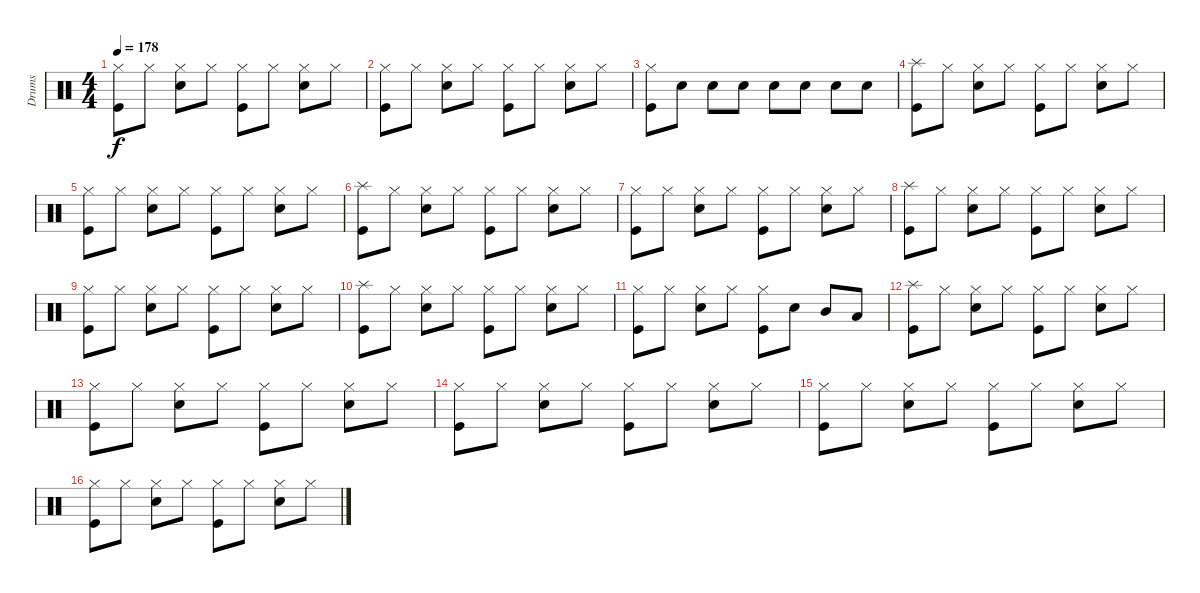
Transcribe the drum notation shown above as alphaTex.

\track ("Drums" "Drums") {instrument percussion}
\staff {score}
\articulation defaults
\ts (4 4)
\tempo 178
\clef neutral
\ks c
("Hi-Hat (closed)" "Kick (hit)").8{dy f} "Hi-Hat (closed)".8 ("Hi-Hat (closed)" "Electric Snare (hit)").8 "Hi-Hat (closed)".8 ("Hi-Hat (closed)" "Kick (hit)").8 "Hi-Hat (closed)".8 ("Hi-Hat (closed)" "Electric Snare (hit)").8 "Hi-Hat (closed)".8 |
("Hi-Hat (closed)" "Kick (hit)").8 "Hi-Hat (closed)".8 ("Hi-Hat (closed)" "Electric Snare (hit)").8 "Hi-Hat (closed)".8 ("Hi-Hat (closed)" "Kick (hit)").8 "Hi-Hat (closed)".8 ("Hi-Hat (closed)" "Electric Snare (hit)").8 "Hi-Hat (closed)".8 |
("Hi-Hat (closed)" "Kick (hit)").8 "Electric Snare (hit)".8 "Electric Snare (hit)".8 "Electric Snare (hit)".8 "Electric Snare (hit)".8 "Electric Snare (hit)".8 "Electric Snare (hit)".8 "Electric Snare (hit)".8 |
("Splash (hit)" "Kick (hit)").8 "Hi-Hat (closed)".8 ("Hi-Hat (closed)" "Electric Snare (hit)").8 "Hi-Hat (closed)".8 ("Hi-Hat (closed)" "Kick (hit)").8 "Hi-Hat (closed)".8 ("Hi-Hat (closed)" "Electric Snare (hit)").8 "Hi-Hat (closed)".8 |
("Hi-Hat (closed)" "Kick (hit)").8 "Hi-Hat (closed)".8 ("Hi-Hat (closed)" "Electric Snare (hit)").8 "Hi-Hat (closed)".8 ("Hi-Hat (closed)" "Kick (hit)").8 "Hi-Hat (closed)".8 ("Hi-Hat (closed)" "Electric Snare (hit)").8 "Hi-Hat (closed)".8 |
("Splash (hit)" "Kick (hit)").8 "Hi-Hat (closed)".8 ("Hi-Hat (closed)" "Electric Snare (hit)").8 "Hi-Hat (closed)".8 ("Hi-Hat (closed)" "Kick (hit)").8 "Hi-Hat (closed)".8 ("Hi-Hat (closed)" "Electric Snare (hit)").8 "Hi-Hat (closed)".8 |
("Hi-Hat (closed)" "Kick (hit)").8 "Hi-Hat (closed)".8 ("Hi-Hat (closed)" "Electric Snare (hit)").8 "Hi-Hat (closed)".8 ("Hi-Hat (closed)" "Kick (hit)").8 "Hi-Hat (closed)".8 ("Hi-Hat (closed)" "Electric Snare (hit)").8 "Hi-Hat (closed)".8 |
("Splash (hit)" "Kick (hit)").8 "Hi-Hat (closed)".8 ("Hi-Hat (closed)" "Electric Snare (hit)").8 "Hi-Hat (closed)".8 ("Hi-Hat (closed)" "Kick (hit)").8 "Hi-Hat (closed)".8 ("Hi-Hat (closed)" "Electric Snare (hit)").8 "Hi-Hat (closed)".8 |
("Hi-Hat (closed)" "Kick (hit)").8 "Hi-Hat (closed)".8 ("Hi-Hat (closed)" "Electric Snare (hit)").8 "Hi-Hat (closed)".8 ("Hi-Hat (closed)" "Kick (hit)").8 "Hi-Hat (closed)".8 ("Hi-Hat (closed)" "Electric Snare (hit)").8 "Hi-Hat (closed)".8 |
("Splash (hit)" "Kick (hit)").8 "Hi-Hat (closed)".8 ("Hi-Hat (closed)" "Electric Snare (hit)").8 "Hi-Hat (closed)".8 ("Hi-Hat (closed)" "Kick (hit)").8 "Hi-Hat (closed)".8 ("Hi-Hat (closed)" "Electric Snare (hit)").8 "Hi-Hat (closed)".8 |
("Hi-Hat (closed)" "Kick (hit)").8 "Hi-Hat (closed)".8 ("Hi-Hat (closed)" "Electric Snare (hit)").8 "Hi-Hat (closed)".8 ("Hi-Hat (closed)" "Kick (hit)").8 "Electric Snare (hit)".8 "Mid Tom (hit)".8 "Low Tom (hit)".8 |
("Splash (hit)" "Kick (hit)").8 "Hi-Hat (closed)".8 ("Hi-Hat (closed)" "Electric Snare (hit)").8 "Hi-Hat (closed)".8 ("Hi-Hat (closed)" "Kick (hit)").8 "Hi-Hat (closed)".8 ("Hi-Hat (closed)" "Electric Snare (hit)").8 "Hi-Hat (closed)".8 |
("Hi-Hat (closed)" "Kick (hit)").8 "Hi-Hat (closed)".8 ("Hi-Hat (closed)" "Electric Snare (hit)").8 "Hi-Hat (closed)".8 ("Hi-Hat (closed)" "Kick (hit)").8 "Hi-Hat (closed)".8 ("Hi-Hat (closed)" "Electric Snare (hit)").8 "Hi-Hat (closed)".8 |
("Hi-Hat (closed)" "Kick (hit)").8 "Hi-Hat (closed)".8 ("Hi-Hat (closed)" "Electric Snare (hit)").8 "Hi-Hat (closed)".8 ("Hi-Hat (closed)" "Kick (hit)").8 "Hi-Hat (closed)".8 ("Hi-Hat (closed)" "Electric Snare (hit)").8 "Hi-Hat (closed)".8 |
("Hi-Hat (closed)" "Kick (hit)").8 "Hi-Hat (closed)".8 ("Hi-Hat (closed)" "Electric Snare (hit)").8 "Hi-Hat (closed)".8 ("Hi-Hat (closed)" "Kick (hit)").8 "Hi-Hat (closed)".8 ("Hi-Hat (closed)" "Electric Snare (hit)").8 "Hi-Hat (closed)".8 |
("Hi-Hat (closed)" "Kick (hit)").8 "Hi-Hat (closed)".8 ("Hi-Hat (closed)" "Electric Snare (hit)").8 "Hi-Hat (closed)".8 ("Hi-Hat (closed)" "Kick (hit)").8 "Hi-Hat (closed)".8 ("Hi-Hat (closed)" "Electric Snare (hit)").8 "Hi-Hat (closed)".8
